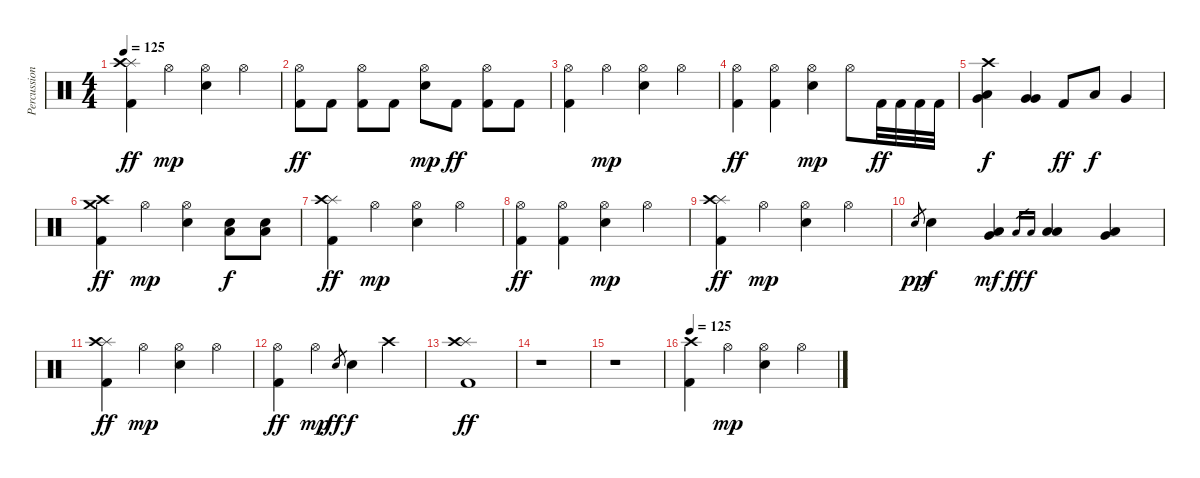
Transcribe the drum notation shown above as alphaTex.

\track ("Percussion" "Percussion") {instrument percussion}
\staff {score}
\articulation defaults
\ts (4 4)
\tempo 125
\clef neutral
\ks c
("Splash (hit)" "Crash high (hit)" "Kick (hit) 2").4{dy ff} "Hi-Hat (open)".4{dy mp} ("Hi-Hat (open)" "Snare (hit) 2").4 "Hi-Hat (open)".4 |
("Hi-Hat (open)" "Kick (hit) 2").8{dy ff} "Kick (hit) 2".8 ("Hi-Hat (open)" "Kick (hit) 2").8 "Kick (hit) 2".8 ("Hi-Hat (open)" "Snare (hit) 2").8{dy mp} "Kick (hit) 2".8{dy ff} ("Hi-Hat (open)" "Kick (hit) 2").8 "Kick (hit) 2".8 |
("Hi-Hat (open)" "Kick (hit) 2").4 "Hi-Hat (open)".4{dy mp} ("Hi-Hat (open)" "Snare (hit) 2").4 "Hi-Hat (open)".4 |
("Hi-Hat (open)" "Kick (hit) 2").4{dy ff} ("Hi-Hat (open)" "Kick (hit) 2").4 ("Hi-Hat (open)" "Snare (hit) 2").4{dy mp} "Hi-Hat (open)".8 "Kick (hit) 2".32{dy ff} "Kick (hit) 2".32 "Kick (hit) 2".32 "Kick (hit) 2".32 |
("Crash high (hit)" "Very Low Tom (hit)" "Low Tom (hit)").4{dy f} ("Very Low Tom (hit)" "Very Low Tom (hit)").4 "Kick (hit) 2".8{dy ff} "Low Tom (hit)".8{dy f} "Very Low Tom (hit)".4 |
("Crash medium (hit)" "Crash high (hit)" "Kick (hit) 2").4{dy ff} "Hi-Hat (open)".4{dy mp} ("Hi-Hat (open)" "Snare (hit) 2").4 ("Low Floor Tom (hit)" "Snare (hit) 2").8{dy f} ("Low Floor Tom (hit)" "Snare (hit) 2").8 |
("Splash (hit)" "Crash high (hit)" "Kick (hit) 2").4{dy ff} "Hi-Hat (open)".4{dy mp} ("Hi-Hat (open)" "Snare (hit) 2").4 "Hi-Hat (open)".4 |
("Hi-Hat (open)" "Kick (hit) 2").4{dy ff} ("Hi-Hat (open)" "Kick (hit) 2").4 ("Hi-Hat (open)" "Snare (hit) 2").4{dy mp} "Hi-Hat (open)".4 |
("Splash (hit)" "Crash high (hit)" "Kick (hit) 2").4{dy ff} "Hi-Hat (open)".4{dy mp} ("Hi-Hat (open)" "Snare (hit) 2").4 "Hi-Hat (open)".4 |
"Snare (hit) 2".8{gr dy pp} "Snare (hit) 2".4{dy f} ("Low Tom (hit)" "Very Low Tom (hit)").4{dy mf} "Low Tom (hit)".16{gr dy ff} "Low Tom (hit)"{h}.16{gr dy f} ("Low Tom (hit)" "Low Tom (hit)").4 ("Very Low Tom (hit)" "Low Floor Tom (hit)").4 |
("Splash (hit)" "Crash high (hit)" "Kick (hit) 2").4{dy ff} "Hi-Hat (open)".4{dy mp} ("Hi-Hat (open)" "Snare (hit) 2").4 "Hi-Hat (open)".4 |
("Hi-Hat (open)" "Kick (hit) 2").4{dy ff} "Hi-Hat (open)".4{dy mp} "Snare (hit) 2".8{gr dy ff} "Snare (hit) 2".4{dy f} "Crash high (hit)".4 |
("Splash (hit)" "Crash high (hit)" "Kick (hit) 2").1{dy ff} |
r.1 |
r.1 |
\tempo 125
("Crash high (hit)" "Kick (hit) 2").4 "Hi-Hat (open)".4{dy mp} ("Hi-Hat (open)" "Snare (hit) 2").4 "Hi-Hat (open)".4
